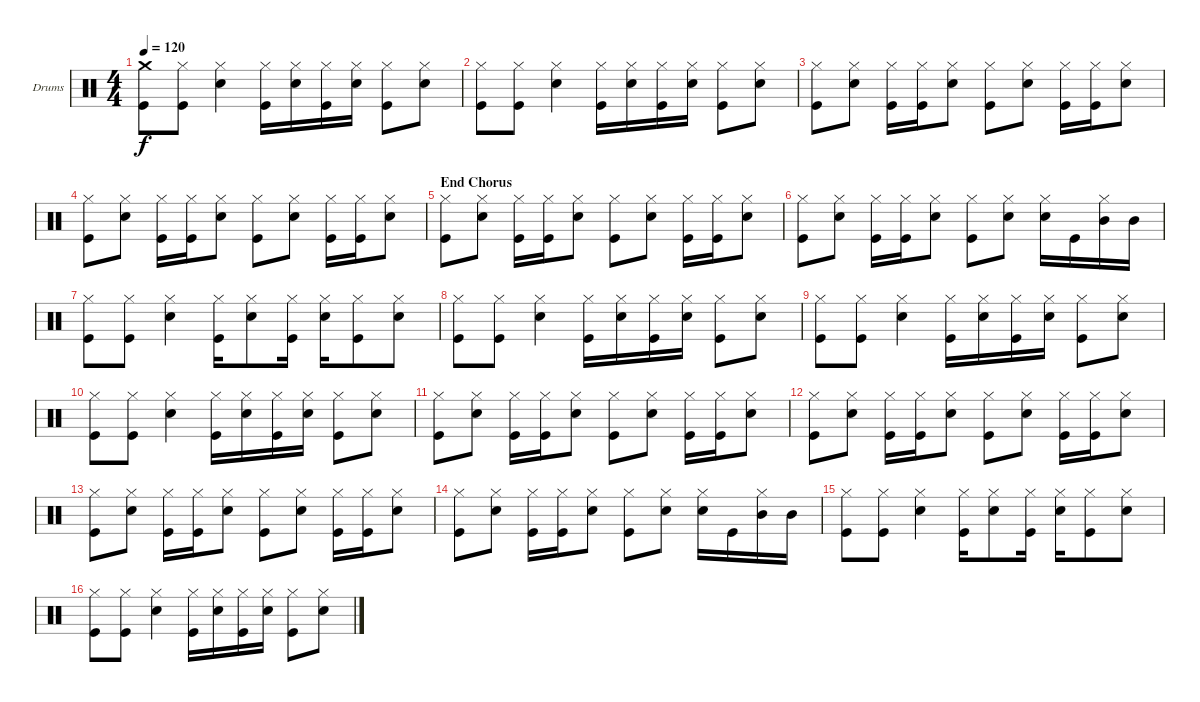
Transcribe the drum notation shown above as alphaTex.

\defaultSystemsLayout 4
\bracketExtendMode groupsimilarinstruments
\firstSystemTrackNameOrientation horizontal
\otherSystemsTrackNameOrientation horizontal
\track ("Drumkit" "Drums") {instrument percussion}
\staff {score}
\articulation defaults
\ts (4 4)
\tempo 120
\clef neutral
\ks c
("Crash medium (hit)" "Kick (hit)").8{dy f} ("Hi-Hat (closed)" "Kick (hit)").8 ("Hi-Hat (closed)" "Snare (hit) 2").4 ("Hi-Hat (closed)" "Kick (hit)").16 ("Hi-Hat (closed)" "Snare (hit) 2").16 ("Hi-Hat (closed)" "Kick (hit)").16 ("Hi-Hat (closed)" "Snare (hit) 2").16 ("Hi-Hat (closed)" "Kick (hit)").8 ("Hi-Hat (closed)" "Snare (hit) 2").8 |
("Hi-Hat (closed)" "Kick (hit)").8 ("Hi-Hat (closed)" "Kick (hit)").8 ("Hi-Hat (closed)" "Snare (hit) 2").4 ("Hi-Hat (closed)" "Kick (hit)").16 ("Hi-Hat (closed)" "Snare (hit) 2").16 ("Hi-Hat (closed)" "Kick (hit)").16 ("Hi-Hat (closed)" "Snare (hit) 2").16 ("Hi-Hat (closed)" "Kick (hit)").8 ("Hi-Hat (closed)" "Snare (hit) 2").8 |
("Hi-Hat (closed)" "Kick (hit)").8 ("Hi-Hat (closed)" "Snare (hit) 2").8 ("Hi-Hat (closed)" "Kick (hit)").16 ("Hi-Hat (closed)" "Kick (hit)").16 ("Hi-Hat (closed)" "Snare (hit) 2").8 ("Hi-Hat (closed)" "Kick (hit)").8 ("Hi-Hat (closed)" "Snare (hit) 2").8 ("Hi-Hat (closed)" "Kick (hit)").16 ("Hi-Hat (closed)" "Kick (hit)").16 ("Hi-Hat (closed)" "Snare (hit) 2").8 |
("Hi-Hat (closed)" "Kick (hit)").8 ("Hi-Hat (closed)" "Snare (hit) 2").8 ("Hi-Hat (closed)" "Kick (hit)").16 ("Hi-Hat (closed)" "Kick (hit)").16 ("Hi-Hat (closed)" "Snare (hit) 2").8 ("Hi-Hat (closed)" "Kick (hit)").8 ("Hi-Hat (closed)" "Snare (hit) 2").8 ("Hi-Hat (closed)" "Kick (hit)").16 ("Hi-Hat (closed)" "Kick (hit)").16 ("Hi-Hat (closed)" "Snare (hit) 2").8 |
\section ("" "End Chorus")
("Hi-Hat (closed)" "Kick (hit)").8 ("Hi-Hat (closed)" "Snare (hit) 2").8 ("Hi-Hat (closed)" "Kick (hit)").16 ("Hi-Hat (closed)" "Kick (hit)").16 ("Hi-Hat (closed)" "Snare (hit) 2").8 ("Hi-Hat (closed)" "Kick (hit)").8 ("Hi-Hat (closed)" "Snare (hit) 2").8 ("Hi-Hat (closed)" "Kick (hit)").16 ("Hi-Hat (closed)" "Kick (hit)").16 ("Hi-Hat (closed)" "Snare (hit) 2").8 |
("Hi-Hat (closed)" "Kick (hit)").8 ("Hi-Hat (closed)" "Snare (hit) 2").8 ("Hi-Hat (closed)" "Kick (hit)").16 ("Hi-Hat (closed)" "Kick (hit)").16 ("Hi-Hat (closed)" "Snare (hit) 2").8 ("Hi-Hat (closed)" "Kick (hit)").8 ("Hi-Hat (closed)" "Snare (hit) 2").8 ("Hi-Hat (closed)" "Snare (hit) 2").16 "Kick (hit)".16 ("Hi-Hat (closed)" "Mid Tom (hit)").16 "Mid Tom (hit)".16 |
("Hi-Hat (closed)" "Kick (hit)").8 ("Hi-Hat (closed)" "Kick (hit)").8 ("Hi-Hat (closed)" "Snare (hit) 2").4 ("Hi-Hat (closed)" "Kick (hit)").16 ("Hi-Hat (closed)" "Snare (hit) 2").8 ("Hi-Hat (closed)" "Kick (hit)").16 ("Hi-Hat (closed)" "Snare (hit) 2").16 ("Hi-Hat (closed)" "Kick (hit)").8 ("Hi-Hat (closed)" "Snare (hit) 2").8 |
("Hi-Hat (closed)" "Kick (hit)").8 ("Hi-Hat (closed)" "Kick (hit)").8 ("Hi-Hat (closed)" "Snare (hit) 2").4 ("Hi-Hat (closed)" "Kick (hit)").16 ("Hi-Hat (closed)" "Snare (hit) 2").16 ("Hi-Hat (closed)" "Kick (hit)").16 ("Hi-Hat (closed)" "Snare (hit) 2").16 ("Hi-Hat (closed)" "Kick (hit)").8 ("Hi-Hat (closed)" "Snare (hit) 2").8 |
("Hi-Hat (closed)" "Kick (hit)").8 ("Hi-Hat (closed)" "Kick (hit)").8 ("Hi-Hat (closed)" "Snare (hit) 2").4 ("Hi-Hat (closed)" "Kick (hit)").16 ("Hi-Hat (closed)" "Snare (hit) 2").16 ("Hi-Hat (closed)" "Kick (hit)").16 ("Hi-Hat (closed)" "Snare (hit) 2").16 ("Hi-Hat (closed)" "Kick (hit)").8 ("Hi-Hat (closed)" "Snare (hit) 2").8 |
("Hi-Hat (closed)" "Kick (hit)").8 ("Hi-Hat (closed)" "Kick (hit)").8 ("Hi-Hat (closed)" "Snare (hit) 2").4 ("Hi-Hat (closed)" "Kick (hit)").16 ("Hi-Hat (closed)" "Snare (hit) 2").16 ("Hi-Hat (closed)" "Kick (hit)").16 ("Hi-Hat (closed)" "Snare (hit) 2").16 ("Hi-Hat (closed)" "Kick (hit)").8 ("Hi-Hat (closed)" "Snare (hit) 2").8 |
("Hi-Hat (closed)" "Kick (hit)").8 ("Hi-Hat (closed)" "Snare (hit) 2").8 ("Hi-Hat (closed)" "Kick (hit)").16 ("Hi-Hat (closed)" "Kick (hit)").16 ("Hi-Hat (closed)" "Snare (hit) 2").8 ("Hi-Hat (closed)" "Kick (hit)").8 ("Hi-Hat (closed)" "Snare (hit) 2").8 ("Hi-Hat (closed)" "Kick (hit)").16 ("Hi-Hat (closed)" "Kick (hit)").16 ("Hi-Hat (closed)" "Snare (hit) 2").8 |
("Hi-Hat (closed)" "Kick (hit)").8 ("Hi-Hat (closed)" "Snare (hit) 2").8 ("Hi-Hat (closed)" "Kick (hit)").16 ("Hi-Hat (closed)" "Kick (hit)").16 ("Hi-Hat (closed)" "Snare (hit) 2").8 ("Hi-Hat (closed)" "Kick (hit)").8 ("Hi-Hat (closed)" "Snare (hit) 2").8 ("Hi-Hat (closed)" "Kick (hit)").16 ("Hi-Hat (closed)" "Kick (hit)").16 ("Hi-Hat (closed)" "Snare (hit) 2").8 |
("Hi-Hat (closed)" "Kick (hit)").8 ("Hi-Hat (closed)" "Snare (hit) 2").8 ("Hi-Hat (closed)" "Kick (hit)").16 ("Hi-Hat (closed)" "Kick (hit)").16 ("Hi-Hat (closed)" "Snare (hit) 2").8 ("Hi-Hat (closed)" "Kick (hit)").8 ("Hi-Hat (closed)" "Snare (hit) 2").8 ("Hi-Hat (closed)" "Kick (hit)").16 ("Hi-Hat (closed)" "Kick (hit)").16 ("Hi-Hat (closed)" "Snare (hit) 2").8 |
("Hi-Hat (closed)" "Kick (hit)").8 ("Hi-Hat (closed)" "Snare (hit) 2").8 ("Hi-Hat (closed)" "Kick (hit)").16 ("Hi-Hat (closed)" "Kick (hit)").16 ("Hi-Hat (closed)" "Snare (hit) 2").8 ("Hi-Hat (closed)" "Kick (hit)").8 ("Hi-Hat (closed)" "Snare (hit) 2").8 ("Hi-Hat (closed)" "Snare (hit) 2").16 "Kick (hit)".16 ("Hi-Hat (closed)" "Mid Tom (hit)").16 "Mid Tom (hit)".16 |
("Hi-Hat (closed)" "Kick (hit)").8 ("Hi-Hat (closed)" "Kick (hit)").8 ("Hi-Hat (closed)" "Snare (hit) 2").4 ("Hi-Hat (closed)" "Kick (hit)").16 ("Hi-Hat (closed)" "Snare (hit) 2").8 ("Hi-Hat (closed)" "Kick (hit)").16 ("Hi-Hat (closed)" "Snare (hit) 2").16 ("Hi-Hat (closed)" "Kick (hit)").8 ("Hi-Hat (closed)" "Snare (hit) 2").8 |
("Hi-Hat (closed)" "Kick (hit)").8 ("Hi-Hat (closed)" "Kick (hit)").8 ("Hi-Hat (closed)" "Snare (hit) 2").4 ("Hi-Hat (closed)" "Kick (hit)").16 ("Hi-Hat (closed)" "Snare (hit) 2").16 ("Hi-Hat (closed)" "Kick (hit)").16 ("Hi-Hat (closed)" "Snare (hit) 2").16 ("Hi-Hat (closed)" "Kick (hit)").8 ("Hi-Hat (closed)" "Snare (hit) 2").8
